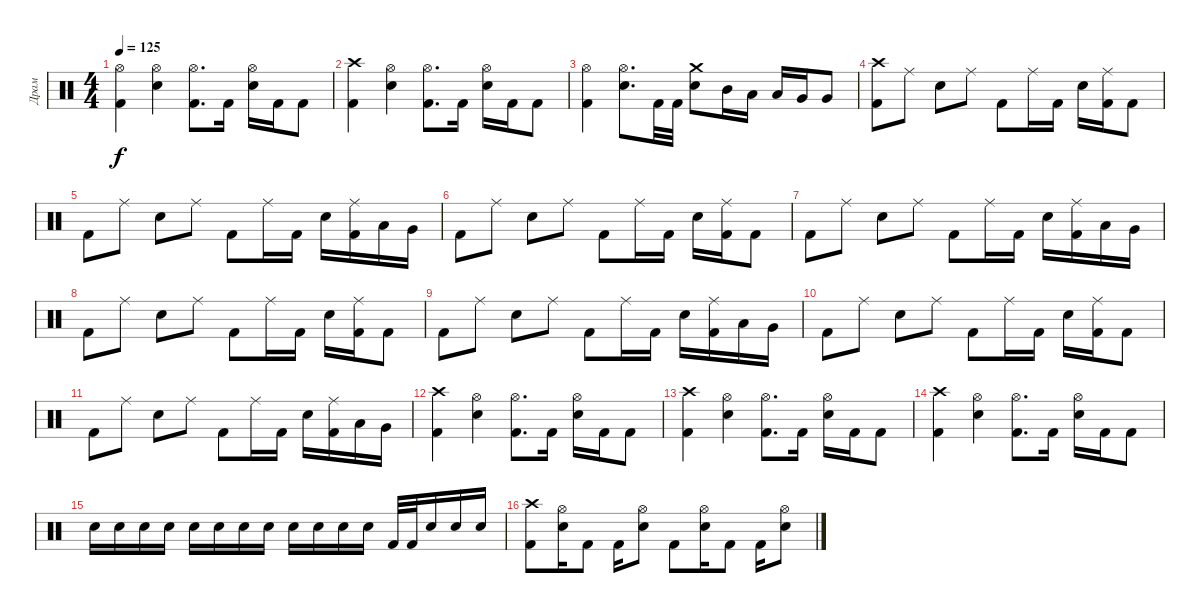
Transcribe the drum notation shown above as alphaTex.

\track ("Драм" "Драм") {instrument percussion}
\staff {score}
\articulation defaults
\ts (4 4)
\tempo 125
\clef neutral
\ks c
("Hi-Hat (open)" "Kick (hit) 2").4{dy f} ("Hi-Hat (open)" "Snare (hit) 2").4 ("Hi-Hat (open)" "Kick (hit) 2").8{d} "Kick (hit) 2".16 ("Hi-Hat (open)" "Snare (hit) 2").16 "Kick (hit) 2".16 "Kick (hit) 2".8 |
("Kick (hit) 2" "Crash high (hit)").4 ("Hi-Hat (open)" "Snare (hit) 2").4 ("Hi-Hat (open)" "Kick (hit) 2").8{d} "Kick (hit) 2".16 ("Hi-Hat (open)" "Snare (hit) 2").16 "Kick (hit) 2".16 "Kick (hit) 2".8 |
("Hi-Hat (open)" "Kick (hit) 2").4 ("Hi-Hat (open)" "Snare (hit) 2").8{d} "Kick (hit) 2".32 "Kick (hit) 2".32 ("Snare (hit) 2" "Crash medium (hit)").8 "Mid Tom (hit)".16 "Low Tom (hit)".16 "Low Tom (hit)".16 "Very Low Tom (hit)".16 "Very Low Tom (hit)".8 |
("Kick (hit) 2" "Crash high (hit)").8 "Ride (middle)".8 "Snare (hit) 2".8 "Ride (middle)".8 "Kick (hit) 2".8 "Ride (middle)".16 "Kick (hit) 2".16 "Snare (hit) 2".16 ("Ride (middle)" "Kick (hit) 2").16 "Kick (hit) 2".8 |
"Kick (hit) 2".8 "Ride (middle)".8 "Snare (hit) 2".8 "Ride (middle)".8 "Kick (hit) 2".8 "Ride (middle)".16 "Kick (hit) 2".16 "Snare (hit) 2".16 ("Ride (middle)" "Kick (hit) 2").16 "Low Tom (hit)".16 "Very Low Tom (hit)".16 |
"Kick (hit) 2".8 "Ride (middle)".8 "Snare (hit) 2".8 "Ride (middle)".8 "Kick (hit) 2".8 "Ride (middle)".16 "Kick (hit) 2".16 "Snare (hit) 2".16 ("Ride (middle)" "Kick (hit) 2").16 "Kick (hit) 2".8 |
"Kick (hit) 2".8 "Ride (middle)".8 "Snare (hit) 2".8 "Ride (middle)".8 "Kick (hit) 2".8 "Ride (middle)".16 "Kick (hit) 2".16 "Snare (hit) 2".16 ("Ride (middle)" "Kick (hit) 2").16 "Low Tom (hit)".16 "Very Low Tom (hit)".16 |
"Kick (hit) 2".8 "Ride (middle)".8 "Snare (hit) 2".8 "Ride (middle)".8 "Kick (hit) 2".8 "Ride (middle)".16 "Kick (hit) 2".16 "Snare (hit) 2".16 ("Ride (middle)" "Kick (hit) 2").16 "Kick (hit) 2".8 |
"Kick (hit) 2".8 "Ride (middle)".8 "Snare (hit) 2".8 "Ride (middle)".8 "Kick (hit) 2".8 "Ride (middle)".16 "Kick (hit) 2".16 "Snare (hit) 2".16 ("Ride (middle)" "Kick (hit) 2").16 "Low Tom (hit)".16 "Very Low Tom (hit)".16 |
"Kick (hit) 2".8 "Ride (middle)".8 "Snare (hit) 2".8 "Ride (middle)".8 "Kick (hit) 2".8 "Ride (middle)".16 "Kick (hit) 2".16 "Snare (hit) 2".16 ("Ride (middle)" "Kick (hit) 2").16 "Kick (hit) 2".8 |
"Kick (hit) 2".8 "Ride (middle)".8 "Snare (hit) 2".8 "Ride (middle)".8 "Kick (hit) 2".8 "Ride (middle)".16 "Kick (hit) 2".16 "Snare (hit) 2".16 ("Ride (middle)" "Kick (hit) 2").16 "Low Tom (hit)".16 "Very Low Tom (hit)".16 |
("Kick (hit) 2" "Crash high (hit)").4 ("Hi-Hat (open)" "Snare (hit) 2").4 ("Hi-Hat (open)" "Kick (hit) 2").8{d} "Kick (hit) 2".16 ("Hi-Hat (open)" "Snare (hit) 2").16 "Kick (hit) 2".16 "Kick (hit) 2".8 |
("Kick (hit) 2" "Crash high (hit)").4 ("Hi-Hat (open)" "Snare (hit) 2").4 ("Hi-Hat (open)" "Kick (hit) 2").8{d} "Kick (hit) 2".16 ("Hi-Hat (open)" "Snare (hit) 2").16 "Kick (hit) 2".16 "Kick (hit) 2".8 |
("Kick (hit) 2" "Crash high (hit)").4 ("Hi-Hat (open)" "Snare (hit) 2").4 ("Hi-Hat (open)" "Kick (hit) 2").8{d} "Kick (hit) 2".16 ("Hi-Hat (open)" "Snare (hit) 2").16 "Kick (hit) 2".16 "Kick (hit) 2".8 |
"Snare (hit) 2".16 "Snare (hit) 2".16 "Snare (hit) 2".16 "Snare (hit) 2".16 "Snare (hit) 2".16 "Snare (hit) 2".16 "Snare (hit) 2".16 "Snare (hit) 2".16 "Snare (hit) 2".16 "Snare (hit) 2".16 "Snare (hit) 2".16 "Snare (hit) 2".16 "Kick (hit) 2".32 "Kick (hit) 2".32 "Snare (hit) 2".16 "Snare (hit) 2".16 "Snare (hit) 2".16 |
("Kick (hit) 2" "Crash high (hit)").8 ("Hi-Hat (open)" "Snare (hit) 2").16 "Kick (hit) 2".8 "Kick (hit) 2".16 ("Hi-Hat (open)" "Snare (hit) 2").8 "Kick (hit) 2".8 ("Hi-Hat (open)" "Snare (hit) 2").16 "Kick (hit) 2".8 "Kick (hit) 2".16 ("Hi-Hat (open)" "Snare (hit) 2").8
